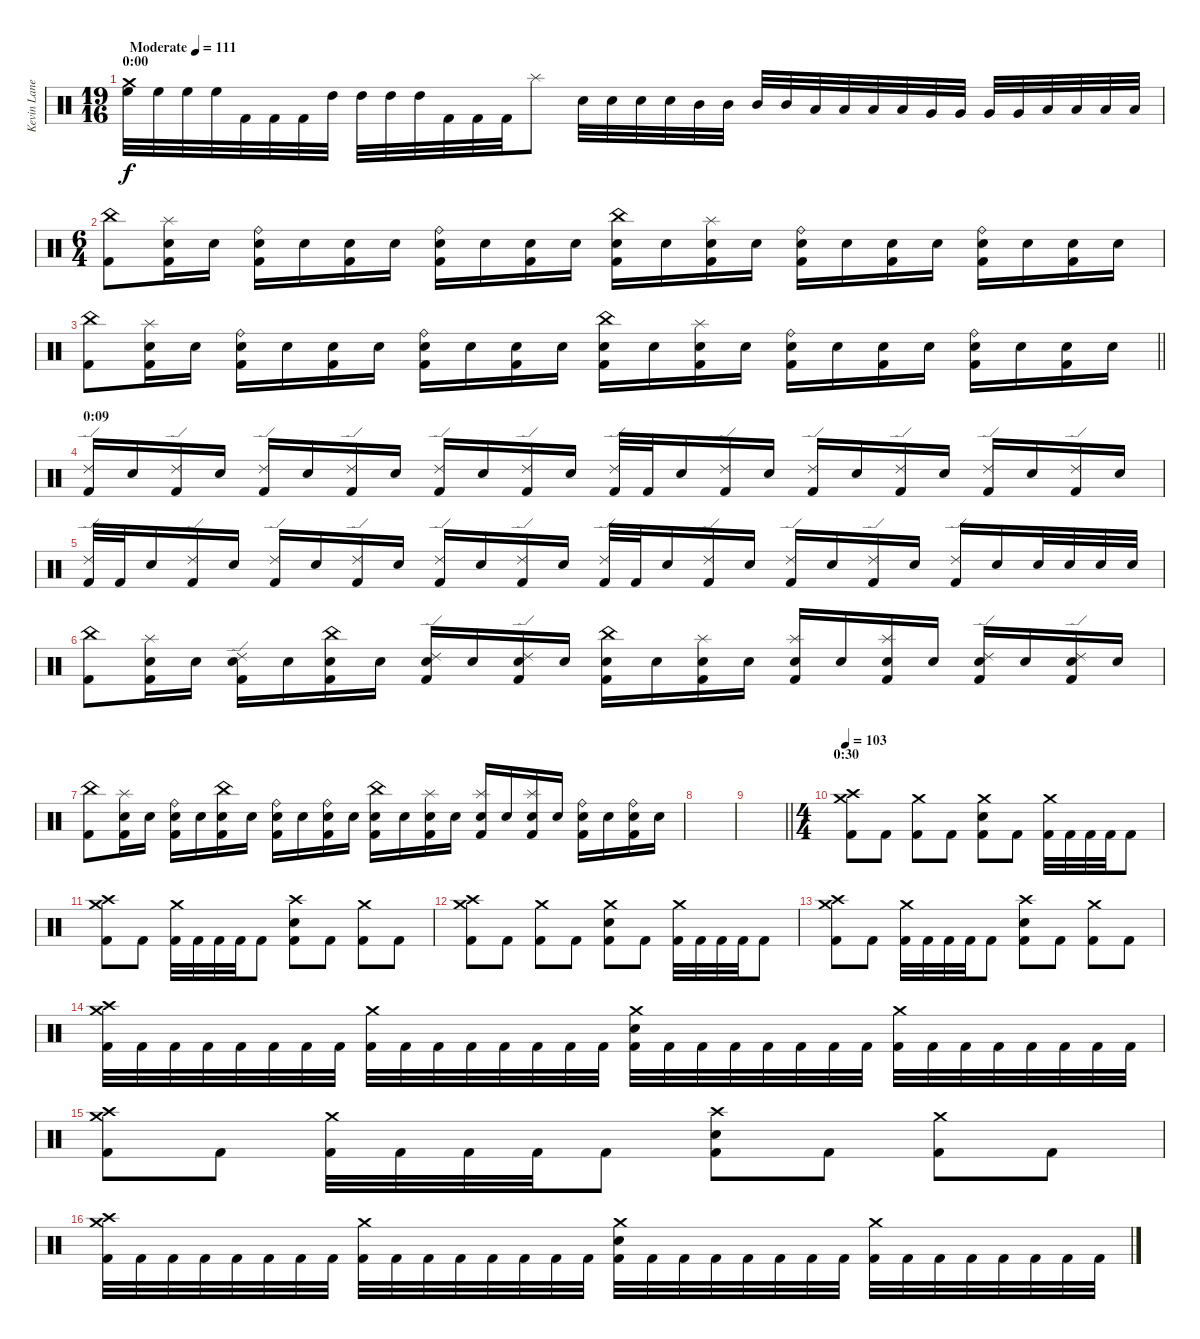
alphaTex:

\track ("Kevin Lane" "Kevin Lane") {instrument percussion}
\staff {score}
\articulation defaults
\ts (19 16)
\section ("" "0:00")
\tempo (111 "Moderate")
\clef neutral
\ks c
("Crash medium (hit)" "High Floor Tom (hit)").32{dy f} "High Floor Tom (hit)".32 "High Floor Tom (hit)".32 "High Floor Tom (hit)".32 "Kick (hit) 2".32 "Kick (hit) 2".32 "Kick (hit) 2".32 "High Tom (hit)".32 "High Tom (hit)".32 "High Tom (hit)".32 "High Tom (hit)".32 "Kick (hit) 2".32 "Kick (hit) 2".32 "Kick (hit) 2".32 "Splash (hit)".8 "Electric Snare (hit)".32 "Electric Snare (hit)".32 "Electric Snare (hit)".32 "Electric Snare (hit)".32 "Mid Tom (hit)".32 "Mid Tom (hit)".32 "Mid Tom (hit)".32 "Mid Tom (hit)".32 "Low Tom (hit)".32 "Low Tom (hit)".32 "Low Tom (hit)".32 "Low Tom (hit)".32 "Very Low Tom (hit)".32 "Very Low Tom (hit)".32 "Very Low Tom (hit)".32 "Very Low Tom (hit)".32 "Low Floor Tom (hit)".32 "Low Floor Tom (hit)".32 "Low Floor Tom (hit)".32 "Low Floor Tom (hit)".32 |
\ts (6 4)
("China (hit)" "Kick (hit) 2").8 ("Splash (hit)" "Electric Snare (hit)" "Kick (hit) 2").16 "Electric Snare (hit)".16 ("Ride (bell)" "Electric Snare (hit)" "Kick (hit) 2").16 "Electric Snare (hit)".16 ("Electric Snare (hit)" "Kick (hit) 2").16 "Electric Snare (hit)".16 ("Ride (bell)" "Electric Snare (hit)" "Kick (hit) 2").16 "Electric Snare (hit)".16 ("Electric Snare (hit)" "Kick (hit) 2").16 "Electric Snare (hit)".16 ("China (hit)" "Electric Snare (hit)" "Kick (hit) 2").16 "Electric Snare (hit)".16 ("Splash (hit)" "Electric Snare (hit)" "Kick (hit) 2").16 "Electric Snare (hit)".16 ("Ride (bell)" "Electric Snare (hit)" "Kick (hit) 2").16 "Electric Snare (hit)".16 ("Electric Snare (hit)" "Kick (hit) 2").16 "Electric Snare (hit)".16 ("Ride (bell)" "Electric Snare (hit)" "Kick (hit) 2").16 "Electric Snare (hit)".16 ("Electric Snare (hit)" "Kick (hit) 2").16 "Electric Snare (hit)".16 |
\barLineRight lightlight
("China (hit)" "Kick (hit) 2").8 ("Splash (hit)" "Electric Snare (hit)" "Kick (hit) 2").16 "Electric Snare (hit)".16 ("Ride (bell)" "Electric Snare (hit)" "Kick (hit) 2").16 "Electric Snare (hit)".16 ("Electric Snare (hit)" "Kick (hit) 2").16 "Electric Snare (hit)".16 ("Ride (bell)" "Electric Snare (hit)" "Kick (hit) 2").16 "Electric Snare (hit)".16 ("Electric Snare (hit)" "Kick (hit) 2").16 "Electric Snare (hit)".16 ("China (hit)" "Electric Snare (hit)" "Kick (hit) 2").16 "Electric Snare (hit)".16 ("Splash (hit)" "Electric Snare (hit)" "Kick (hit) 2").16 "Electric Snare (hit)".16 ("Ride (bell)" "Electric Snare (hit)" "Kick (hit) 2").16 "Electric Snare (hit)".16 ("Electric Snare (hit)" "Kick (hit) 2").16 "Electric Snare (hit)".16 ("Ride (bell)" "Electric Snare (hit)" "Kick (hit) 2").16 "Electric Snare (hit)".16 ("Electric Snare (hit)" "Kick (hit) 2").16 "Electric Snare (hit)".16 |
\section ("" "0:09")
("Ride (edge) 2" "Kick (hit) 2").16 "Electric Snare (hit)".16 ("Ride (edge) 2" "Kick (hit) 2").16 "Electric Snare (hit)".16 ("Ride (edge) 2" "Kick (hit) 2").16 "Electric Snare (hit)".16 ("Ride (edge) 2" "Kick (hit) 2").16 "Electric Snare (hit)".16 ("Ride (edge) 2" "Kick (hit) 2").16 "Electric Snare (hit)".16 ("Ride (edge) 2" "Kick (hit) 2").16 "Electric Snare (hit)".16 ("Ride (edge) 2" "Kick (hit) 2").32 "Kick (hit) 2".32 "Electric Snare (hit)".16 ("Ride (edge) 2" "Kick (hit) 2").16 "Electric Snare (hit)".16 ("Ride (edge) 2" "Kick (hit) 2").16 "Electric Snare (hit)".16 ("Ride (edge) 2" "Kick (hit) 2").16 "Electric Snare (hit)".16 ("Ride (edge) 2" "Kick (hit) 2").16 "Electric Snare (hit)".16 ("Ride (edge) 2" "Kick (hit) 2").16 "Electric Snare (hit)".16 |
("Ride (edge) 2" "Kick (hit) 2").32 "Kick (hit) 2".32 "Electric Snare (hit)".16 ("Ride (edge) 2" "Kick (hit) 2").16 "Electric Snare (hit)".16 ("Ride (edge) 2" "Kick (hit) 2").16 "Electric Snare (hit)".16 ("Ride (edge) 2" "Kick (hit) 2").16 "Electric Snare (hit)".16 ("Ride (edge) 2" "Kick (hit) 2").16 "Electric Snare (hit)".16 ("Ride (edge) 2" "Kick (hit) 2").16 "Electric Snare (hit)".16 ("Ride (edge) 2" "Kick (hit) 2").32 "Kick (hit) 2".32 "Electric Snare (hit)".16 ("Ride (edge) 2" "Kick (hit) 2").16 "Electric Snare (hit)".16 ("Ride (edge) 2" "Kick (hit) 2").16 "Electric Snare (hit)".16 ("Ride (edge) 2" "Kick (hit) 2").16 "Electric Snare (hit)".16 ("Ride (edge) 2" "Kick (hit) 2").16 "Electric Snare (hit)".16 "Electric Snare (hit)".32 "Electric Snare (hit)".32 "Electric Snare (hit)".32 "Electric Snare (hit)".32 |
("China (hit)" "Kick (hit) 2").8 ("Splash (hit)" "Electric Snare (hit)" "Kick (hit) 2").16 "Electric Snare (hit)".16 ("Ride (edge) 2" "Electric Snare (hit)" "Kick (hit) 2").16 "Electric Snare (hit)".16 ("China (hit)" "Electric Snare (hit)" "Kick (hit) 2").16 "Electric Snare (hit)".16 ("Ride (edge) 2" "Electric Snare (hit)" "Kick (hit) 2").16 "Electric Snare (hit)".16 ("Ride (edge) 2" "Electric Snare (hit)" "Kick (hit) 2").16 "Electric Snare (hit)".16 ("China (hit)" "Electric Snare (hit)" "Kick (hit) 2").16 "Electric Snare (hit)".16 ("Splash (hit)" "Electric Snare (hit)" "Kick (hit) 2").16 "Electric Snare (hit)".16 ("Splash (hit)" "Electric Snare (hit)" "Kick (hit) 2").16 "Electric Snare (hit)".16 ("Splash (hit)" "Electric Snare (hit)" "Kick (hit) 2").16 "Electric Snare (hit)".16 ("Ride (edge) 2" "Electric Snare (hit)" "Kick (hit) 2").16 "Electric Snare (hit)".16 ("Ride (edge) 2" "Electric Snare (hit)" "Kick (hit) 2").16 "Electric Snare (hit)".16 |
("China (hit)" "Kick (hit) 2").8 ("Splash (hit)" "Electric Snare (hit)" "Kick (hit) 2").16 "Electric Snare (hit)".16 ("Ride (bell)" "Electric Snare (hit)" "Kick (hit) 2").16 "Electric Snare (hit)".16 ("China (hit)" "Electric Snare (hit)" "Kick (hit) 2").16 "Electric Snare (hit)".16 ("Ride (bell)" "Electric Snare (hit)" "Kick (hit) 2").16 "Electric Snare (hit)".16 ("Ride (bell)" "Electric Snare (hit)" "Kick (hit) 2").16 "Electric Snare (hit)".16 ("China (hit)" "Electric Snare (hit)" "Kick (hit) 2").16 "Electric Snare (hit)".16 ("Splash (hit)" "Electric Snare (hit)" "Kick (hit) 2").16 "Electric Snare (hit)".16 ("Splash (hit)" "Electric Snare (hit)" "Kick (hit) 2").16 "Electric Snare (hit)".16 ("Splash (hit)" "Electric Snare (hit)" "Kick (hit) 2").16 "Electric Snare (hit)".16 ("Ride (bell)" "Electric Snare (hit)" "Kick (hit) 2").16 "Electric Snare (hit)".16 ("Ride (bell)" "Electric Snare (hit)" "Kick (hit) 2").16 "Electric Snare (hit)".16 |
|
\barLineRight lightlight
|
\ts (4 4)
\section ("" "0:30")
\tempo 103
("Crash high (hit)" "Crash medium (hit)" "Kick (hit) 2").8 "Kick (hit) 2".8 ("Crash medium (hit)" "Kick (hit) 2").8 "Kick (hit) 2".8 ("Crash medium (hit)" "Electric Snare (hit)" "Kick (hit) 2").8 "Kick (hit) 2".8 ("Crash medium (hit)" "Kick (hit) 2").32 "Kick (hit) 2".32 "Kick (hit) 2".32 "Kick (hit) 2".32 "Kick (hit) 2".8 |
("Crash high (hit)" "Crash medium (hit)" "Kick (hit) 2").8 "Kick (hit) 2".8 ("Crash medium (hit)" "Kick (hit) 2").32 "Kick (hit) 2".32 "Kick (hit) 2".32 "Kick (hit) 2".32 "Kick (hit) 2".8 ("Crash high (hit)" "Electric Snare (hit)" "Kick (hit) 2").8 "Kick (hit) 2".8 ("Crash medium (hit)" "Kick (hit) 2").8 "Kick (hit) 2".8 |
("Crash high (hit)" "Crash medium (hit)" "Kick (hit) 2").8 "Kick (hit) 2".8 ("Crash medium (hit)" "Kick (hit) 2").8 "Kick (hit) 2".8 ("Crash medium (hit)" "Electric Snare (hit)" "Kick (hit) 2").8 "Kick (hit) 2".8 ("Crash medium (hit)" "Kick (hit) 2").32 "Kick (hit) 2".32 "Kick (hit) 2".32 "Kick (hit) 2".32 "Kick (hit) 2".8 |
("Crash high (hit)" "Crash medium (hit)" "Kick (hit) 2").8 "Kick (hit) 2".8 ("Crash medium (hit)" "Kick (hit) 2").32 "Kick (hit) 2".32 "Kick (hit) 2".32 "Kick (hit) 2".32 "Kick (hit) 2".8 ("Crash high (hit)" "Electric Snare (hit)" "Kick (hit) 2").8 "Kick (hit) 2".8 ("Crash medium (hit)" "Kick (hit) 2").8 "Kick (hit) 2".8 |
("Crash high (hit)" "Crash medium (hit)" "Kick (hit) 2").32 "Kick (hit) 2".32 "Kick (hit) 2".32 "Kick (hit) 2".32 "Kick (hit) 2".32 "Kick (hit) 2".32 "Kick (hit) 2".32 "Kick (hit) 2".32 ("Crash medium (hit)" "Kick (hit) 2").32 "Kick (hit) 2".32 "Kick (hit) 2".32 "Kick (hit) 2".32 "Kick (hit) 2".32 "Kick (hit) 2".32 "Kick (hit) 2".32 "Kick (hit) 2".32 ("Crash medium (hit)" "Electric Snare (hit)" "Kick (hit) 2").32 "Kick (hit) 2".32 "Kick (hit) 2".32 "Kick (hit) 2".32 "Kick (hit) 2".32 "Kick (hit) 2".32 "Kick (hit) 2".32 "Kick (hit) 2".32 ("Crash medium (hit)" "Kick (hit) 2").32 "Kick (hit) 2".32 "Kick (hit) 2".32 "Kick (hit) 2".32 "Kick (hit) 2".32 "Kick (hit) 2".32 "Kick (hit) 2".32 "Kick (hit) 2".32 |
("Crash high (hit)" "Crash medium (hit)" "Kick (hit) 2").8 "Kick (hit) 2".8 ("Crash medium (hit)" "Kick (hit) 2").32 "Kick (hit) 2".32 "Kick (hit) 2".32 "Kick (hit) 2".32 "Kick (hit) 2".8 ("Crash high (hit)" "Electric Snare (hit)" "Kick (hit) 2").8 "Kick (hit) 2".8 ("Crash medium (hit)" "Kick (hit) 2").8 "Kick (hit) 2".8 |
("Crash high (hit)" "Crash medium (hit)" "Kick (hit) 2").32 "Kick (hit) 2".32 "Kick (hit) 2".32 "Kick (hit) 2".32 "Kick (hit) 2".32 "Kick (hit) 2".32 "Kick (hit) 2".32 "Kick (hit) 2".32 ("Crash medium (hit)" "Kick (hit) 2").32 "Kick (hit) 2".32 "Kick (hit) 2".32 "Kick (hit) 2".32 "Kick (hit) 2".32 "Kick (hit) 2".32 "Kick (hit) 2".32 "Kick (hit) 2".32 ("Crash medium (hit)" "Electric Snare (hit)" "Kick (hit) 2").32 "Kick (hit) 2".32 "Kick (hit) 2".32 "Kick (hit) 2".32 "Kick (hit) 2".32 "Kick (hit) 2".32 "Kick (hit) 2".32 "Kick (hit) 2".32 ("Crash medium (hit)" "Kick (hit) 2").32 "Kick (hit) 2".32 "Kick (hit) 2".32 "Kick (hit) 2".32 "Kick (hit) 2".32 "Kick (hit) 2".32 "Kick (hit) 2".32 "Kick (hit) 2".32
